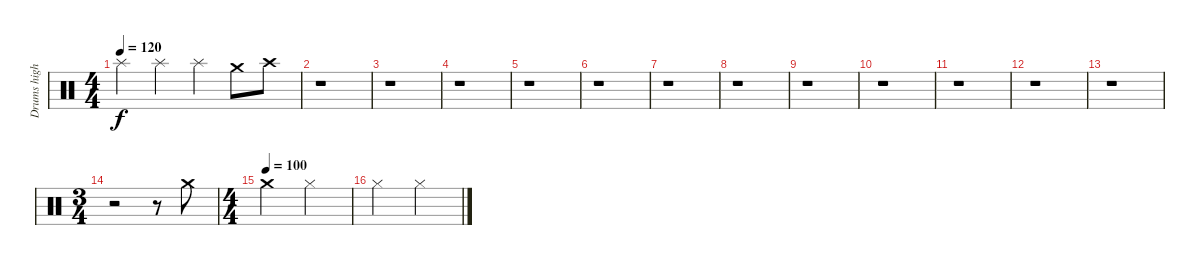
\track ("Drums high" "Drums high") {instrument percussion}
\staff {score}
\articulation defaults
\ts (4 4)
\tempo 120
\clef neutral
\ks c "Splash (hit)".4{dy f} "Splash (hit)".4 "Splash (hit)".4 "Crash medium (hit)".8 "Crash high (hit)".8
|
r.1 |
r.1 |
r.1 |
r.1 |
r.1 |
r.1 |
r.1 |
r.1 |
r.1 |
r.1 |
r.1 |
r.1 |
\ts (3 4)
r.2 r.8 "Crash medium (hit)".8 |
\ts (4 4)
\tempo (100)
"Crash medium (hit)".2 "Hi-Hat (closed)".2 |
"Hi-Hat (closed)".2 "Hi-Hat (closed)".2
